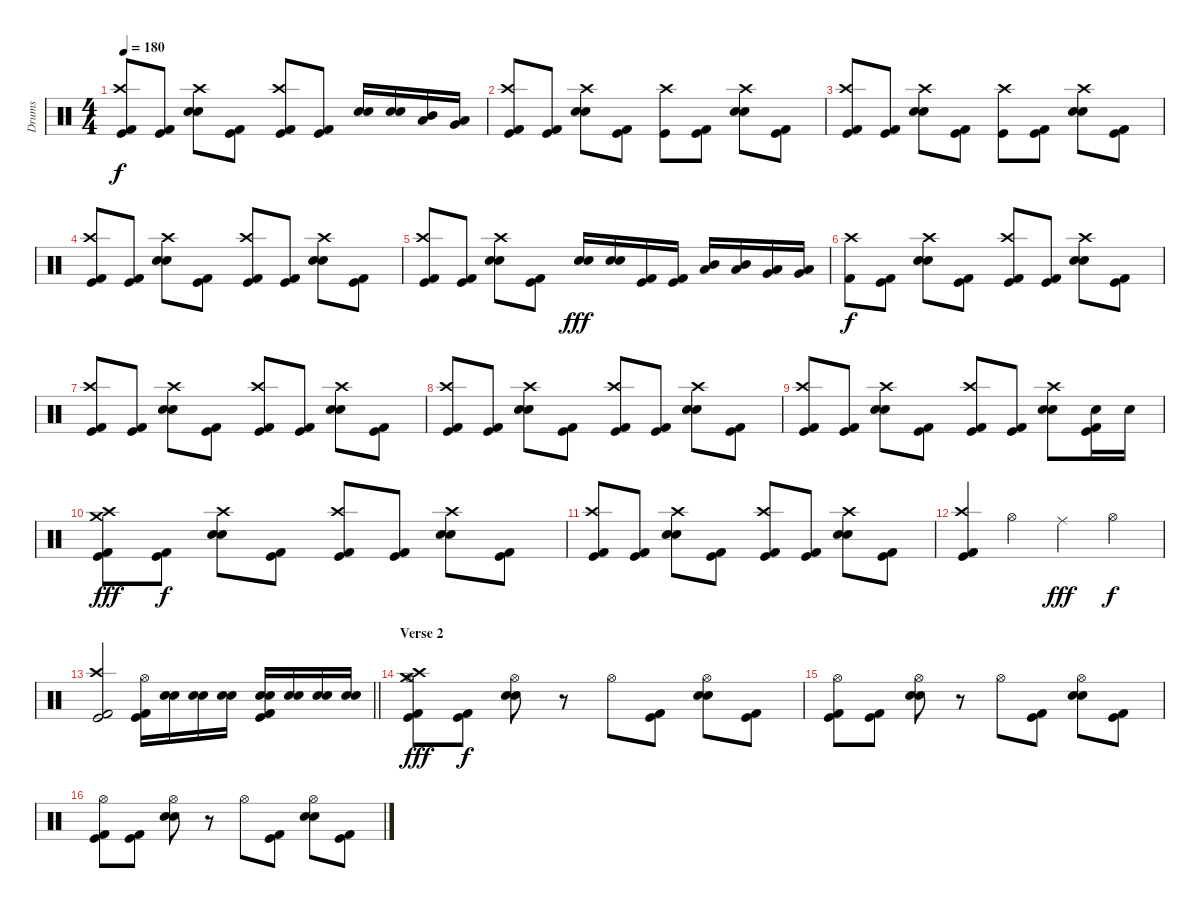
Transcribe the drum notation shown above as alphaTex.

\track ("Drums" "Drums") {instrument percussion}
\staff {score}
\articulation defaults
\ts (4 4)
\tempo 180
\clef neutral
\ks c
("Kick (hit)" "Crash high (hit)" "Kick (hit) 2").8{dy f} ("Kick (hit)" "Kick (hit) 2").8 ("Electric Snare (hit)" "Snare (hit) 2" "Crash high (hit)").8 ("Kick (hit)" "Kick (hit) 2").8 ("Kick (hit)" "Crash high (hit)" "Kick (hit) 2").8 ("Kick (hit)" "Kick (hit) 2").8 ("Electric Snare (hit)" "Snare (hit) 2").16 ("Electric Snare (hit)" "Snare (hit) 2").16 ("Mid Tom (hit)" "Low Tom (hit)").16 ("Low Tom (hit)" "Very Low Tom (hit)").16 |
("Kick (hit)" "Crash high (hit)" "Kick (hit) 2").8 ("Kick (hit)" "Kick (hit) 2").8 ("Electric Snare (hit)" "Snare (hit) 2" "Crash high (hit)").8 ("Kick (hit)" "Kick (hit) 2").8 ("Kick (hit)" "Crash high (hit)").8 ("Kick (hit)" "Kick (hit) 2").8 ("Electric Snare (hit)" "Snare (hit) 2" "Crash high (hit)").8 ("Kick (hit)" "Kick (hit) 2").8 |
("Kick (hit)" "Crash high (hit)" "Kick (hit) 2").8 ("Kick (hit)" "Kick (hit) 2").8 ("Electric Snare (hit)" "Snare (hit) 2" "Crash high (hit)").8 ("Kick (hit)" "Kick (hit) 2").8 ("Kick (hit)" "Crash high (hit)").8 ("Kick (hit)" "Kick (hit) 2").8 ("Electric Snare (hit)" "Snare (hit) 2" "Crash high (hit)").8 ("Kick (hit)" "Kick (hit) 2").8 |
("Kick (hit)" "Crash high (hit)" "Kick (hit) 2").8 ("Kick (hit)" "Kick (hit) 2").8 ("Electric Snare (hit)" "Snare (hit) 2" "Crash high (hit)").8 ("Kick (hit)" "Kick (hit) 2").8 ("Kick (hit)" "Crash high (hit)" "Kick (hit) 2").8 ("Kick (hit)" "Kick (hit) 2").8 ("Electric Snare (hit)" "Snare (hit) 2" "Crash high (hit)").8 ("Kick (hit)" "Kick (hit) 2").8 |
("Kick (hit)" "Crash high (hit)" "Kick (hit) 2").8 ("Kick (hit)" "Kick (hit) 2").8 ("Electric Snare (hit)" "Snare (hit) 2" "Crash high (hit)").8 ("Kick (hit)" "Kick (hit) 2").8 ("Snare (hit) 2" "Electric Snare (hit)").16{dy fff} ("Snare (hit) 2" "Electric Snare (hit)").16 ("Kick (hit) 2" "Kick (hit)").16 ("Kick (hit) 2" "Kick (hit)").16 ("Low Tom (hit)" "Mid Tom (hit)").16 ("Low Tom (hit)" "Mid Tom (hit)").16 ("Very Low Tom (hit)" "Low Tom (hit)").16 ("Very Low Tom (hit)" "Low Tom (hit)").16 |
("Crash high (hit)" "Kick (hit) 2").8{dy f} ("Kick (hit)" "Kick (hit) 2").8 ("Electric Snare (hit)" "Snare (hit) 2" "Crash high (hit)").8 ("Kick (hit)" "Kick (hit) 2").8 ("Kick (hit)" "Crash high (hit)" "Kick (hit) 2").8 ("Kick (hit)" "Kick (hit) 2").8 ("Electric Snare (hit)" "Snare (hit) 2" "Crash high (hit)").8 ("Kick (hit)" "Kick (hit) 2").8 |
("Kick (hit)" "Crash high (hit)" "Kick (hit) 2").8 ("Kick (hit)" "Kick (hit) 2").8 ("Electric Snare (hit)" "Snare (hit) 2" "Crash high (hit)").8 ("Kick (hit)" "Kick (hit) 2").8 ("Kick (hit)" "Crash high (hit)" "Kick (hit) 2").8 ("Kick (hit)" "Kick (hit) 2").8 ("Electric Snare (hit)" "Snare (hit) 2" "Crash high (hit)").8 ("Kick (hit)" "Kick (hit) 2").8 |
("Kick (hit)" "Crash high (hit)" "Kick (hit) 2").8 ("Kick (hit)" "Kick (hit) 2").8 ("Electric Snare (hit)" "Snare (hit) 2" "Crash high (hit)").8 ("Kick (hit)" "Kick (hit) 2").8 ("Kick (hit)" "Crash high (hit)" "Kick (hit) 2").8 ("Kick (hit)" "Kick (hit) 2").8 ("Electric Snare (hit)" "Snare (hit) 2" "Crash high (hit)").8 ("Kick (hit)" "Kick (hit) 2").8 |
("Kick (hit)" "Crash high (hit)" "Kick (hit) 2").8 ("Kick (hit)" "Kick (hit) 2").8 ("Electric Snare (hit)" "Snare (hit) 2" "Crash high (hit)").8 ("Kick (hit)" "Kick (hit) 2").8 ("Kick (hit)" "Crash high (hit)" "Kick (hit) 2").8 ("Kick (hit)" "Kick (hit) 2").8 ("Electric Snare (hit)" "Snare (hit) 2" "Crash high (hit)").8 ("Electric Snare (hit)" "Kick (hit)" "Kick (hit) 2").16 "Electric Snare (hit)".16 |
("Crash medium (hit)" "Kick (hit)" "Crash high (hit)" "Kick (hit) 2").8{dy fff} ("Kick (hit)" "Kick (hit) 2").8{dy f} ("Electric Snare (hit)" "Snare (hit) 2" "Crash high (hit)").8 ("Kick (hit)" "Kick (hit) 2").8 ("Kick (hit)" "Crash high (hit)" "Kick (hit) 2").8 ("Kick (hit)" "Kick (hit) 2").8 ("Electric Snare (hit)" "Snare (hit) 2" "Crash high (hit)").8 ("Kick (hit)" "Kick (hit) 2").8 |
("Kick (hit)" "Crash high (hit)" "Kick (hit) 2").8 ("Kick (hit)" "Kick (hit) 2").8 ("Electric Snare (hit)" "Snare (hit) 2" "Crash high (hit)").8 ("Kick (hit)" "Kick (hit) 2").8 ("Kick (hit)" "Crash high (hit)" "Kick (hit) 2").8 ("Kick (hit)" "Kick (hit) 2").8 ("Electric Snare (hit)" "Snare (hit) 2" "Crash high (hit)").8 ("Kick (hit)" "Kick (hit) 2").8 |
("Kick (hit)" "Crash high (hit)" "Kick (hit) 2").4 "Hi-Hat (open)".4 "Ride (middle)".4{dy fff} "Hi-Hat (open)".4{dy f} |
\barLineRight lightlight
("Crash high (hit)" "Kick (hit)" "Kick (hit) 2").2 ("Kick (hit)" "Hi-Hat (open)" "Kick (hit) 2").16 ("Electric Snare (hit)" "Snare (hit) 2").16 ("Electric Snare (hit)" "Snare (hit) 2").16 ("Electric Snare (hit)" "Snare (hit) 2").16 ("Electric Snare (hit)" "Kick (hit)" "Snare (hit) 2" "Kick (hit) 2").16 ("Electric Snare (hit)" "Snare (hit) 2").16 ("Electric Snare (hit)" "Snare (hit) 2").16 ("Electric Snare (hit)" "Snare (hit) 2").16 |
\section ("" "Verse 2")
("Crash high (hit)" "Crash medium (hit)" "Hi-Hat (open)" "Kick (hit)" "Kick (hit) 2").8{dy fff} ("Kick (hit)" "Kick (hit) 2").8{dy f} ("Hi-Hat (open)" "Electric Snare (hit)" "Snare (hit) 2").8 r.8 "Hi-Hat (open)".8 ("Kick (hit)" "Kick (hit) 2").8 ("Hi-Hat (open)" "Electric Snare (hit)" "Snare (hit) 2").8 ("Kick (hit)" "Kick (hit) 2").8 |
("Hi-Hat (open)" "Kick (hit)" "Kick (hit) 2").8 ("Kick (hit)" "Kick (hit) 2").8 ("Hi-Hat (open)" "Electric Snare (hit)" "Snare (hit) 2").8 r.8 "Hi-Hat (open)".8 ("Kick (hit)" "Kick (hit) 2").8 ("Hi-Hat (open)" "Electric Snare (hit)" "Snare (hit) 2").8 ("Kick (hit)" "Kick (hit) 2").8 |
("Hi-Hat (open)" "Kick (hit)" "Kick (hit) 2").8 ("Kick (hit)" "Kick (hit) 2").8 ("Hi-Hat (open)" "Electric Snare (hit)" "Snare (hit) 2").8 r.8 "Hi-Hat (open)".8 ("Kick (hit)" "Kick (hit) 2").8 ("Hi-Hat (open)" "Electric Snare (hit)" "Snare (hit) 2").8 ("Kick (hit)" "Kick (hit) 2").8
